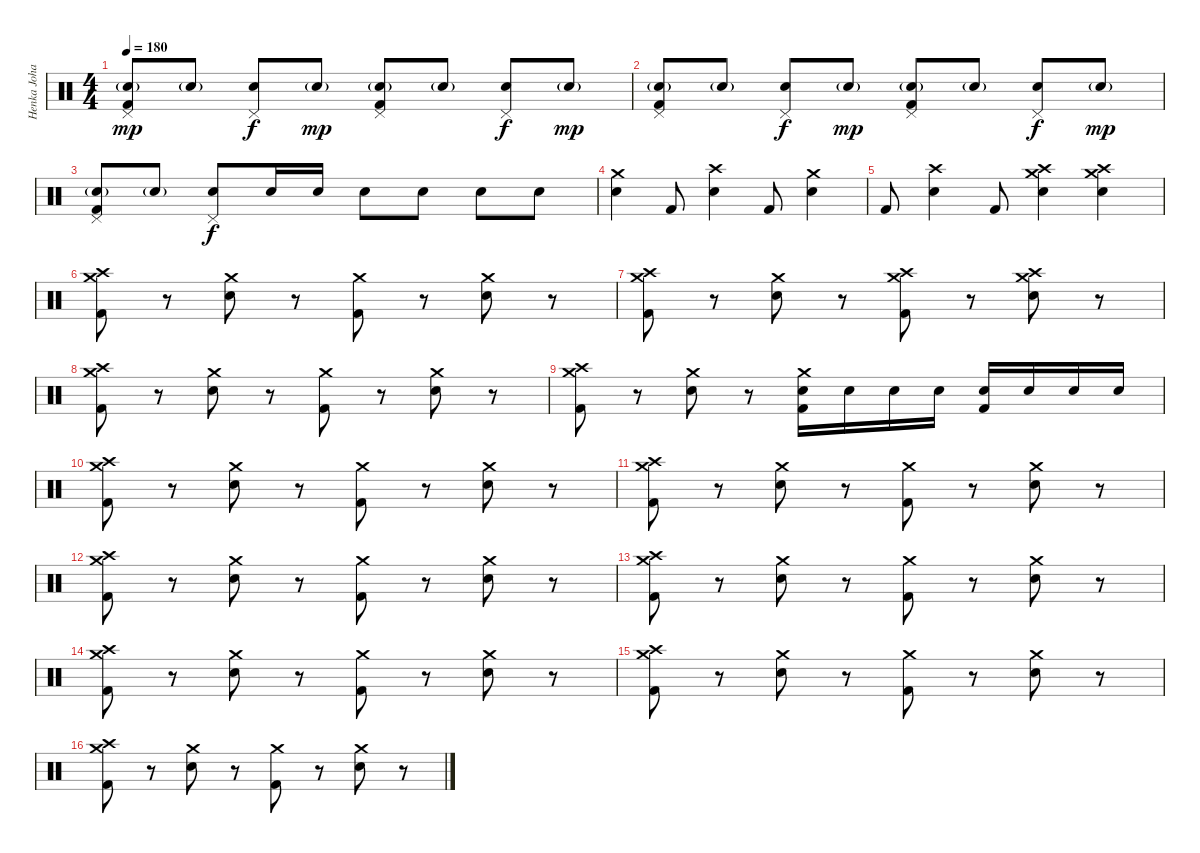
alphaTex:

\track ("Henka Johansson" "Henka Joha") {instrument percussion}
\staff {score}
\articulation defaults
\ts (4 4)
\tempo 180
\clef neutral
\ks c
("Pedal Hi-Hat (hit)" "Snare (hit) 2"{g} "Kick (hit) 2").8{dy mp} "Snare (hit) 2"{g}.8 ("Pedal Hi-Hat (hit)" "Snare (hit) 2").8{dy f} "Snare (hit) 2"{g}.8{dy mp} ("Pedal Hi-Hat (hit)" "Snare (hit) 2"{g} "Kick (hit) 2").8 "Snare (hit) 2"{g}.8 ("Pedal Hi-Hat (hit)" "Snare (hit) 2").8{dy f} "Snare (hit) 2"{g}.8{dy mp} |
("Pedal Hi-Hat (hit)" "Snare (hit) 2"{g} "Kick (hit) 2").8 "Snare (hit) 2"{g}.8 ("Pedal Hi-Hat (hit)" "Snare (hit) 2").8{dy f} "Snare (hit) 2"{g}.8{dy mp} ("Pedal Hi-Hat (hit)" "Snare (hit) 2"{g} "Kick (hit) 2").8 "Snare (hit) 2"{g}.8 ("Pedal Hi-Hat (hit)" "Snare (hit) 2").8{dy f} "Snare (hit) 2"{g}.8{dy mp} |
("Pedal Hi-Hat (hit)" "Snare (hit) 2"{g} "Kick (hit) 2").8 "Snare (hit) 2"{g}.8 ("Pedal Hi-Hat (hit)" "Snare (hit) 2").8{dy f} "Snare (hit) 2".16 "Snare (hit) 2".16 "Snare (hit) 2".8 "Snare (hit) 2".8 "Snare (hit) 2".8 "Snare (hit) 2".8 |
("Crash medium (hit)" "Snare (hit) 2").4 "Kick (hit) 2".8 ("Crash high (hit)" "Snare (hit) 2").4 "Kick (hit) 2".8 ("Crash medium (hit)" "Snare (hit) 2").4 |
"Kick (hit) 2".8 ("Crash high (hit)" "Snare (hit) 2").4 "Kick (hit) 2".8 ("Crash medium (hit)" "Crash high (hit)" "Snare (hit) 2").4 ("Crash medium (hit)" "Crash high (hit)" "Snare (hit) 2").4 |
("Crash medium (hit)" "Crash high (hit)" "Kick (hit) 2").8 r.8 ("Crash medium (hit)" "Snare (hit) 2").8 r.8 ("Crash medium (hit)" "Kick (hit) 2").8 r.8 ("Crash medium (hit)" "Snare (hit) 2").8 r.8 |
("Crash medium (hit)" "Crash high (hit)" "Kick (hit) 2").8 r.8 ("Crash medium (hit)" "Snare (hit) 2").8 r.8 ("Crash medium (hit)" "Crash high (hit)" "Kick (hit) 2").8 r.8 ("Crash medium (hit)" "Crash high (hit)" "Snare (hit) 2").8 r.8 |
("Crash medium (hit)" "Crash high (hit)" "Kick (hit) 2").8 r.8 ("Crash medium (hit)" "Snare (hit) 2").8 r.8 ("Crash medium (hit)" "Kick (hit) 2").8 r.8 ("Crash medium (hit)" "Snare (hit) 2").8 r.8 |
("Crash medium (hit)" "Crash high (hit)" "Kick (hit) 2").8 r.8 ("Crash medium (hit)" "Snare (hit) 2").8 r.8 ("Crash medium (hit)" "Snare (hit) 2" "Kick (hit) 2").16 "Snare (hit) 2".16 "Snare (hit) 2".16 "Snare (hit) 2".16 ("Snare (hit) 2" "Kick (hit) 2").16 "Snare (hit) 2".16 "Snare (hit) 2".16 "Snare (hit) 2".16 |
("Crash medium (hit)" "Crash high (hit)" "Kick (hit) 2").8 r.8 ("Crash medium (hit)" "Snare (hit) 2").8 r.8 ("Crash medium (hit)" "Kick (hit) 2").8 r.8 ("Crash medium (hit)" "Snare (hit) 2").8 r.8 |
("Crash medium (hit)" "Crash high (hit)" "Kick (hit) 2").8 r.8 ("Crash medium (hit)" "Snare (hit) 2").8 r.8 ("Crash medium (hit)" "Kick (hit) 2").8 r.8 ("Crash medium (hit)" "Snare (hit) 2").8 r.8 |
("Crash medium (hit)" "Crash high (hit)" "Kick (hit) 2").8 r.8 ("Crash medium (hit)" "Snare (hit) 2").8 r.8 ("Crash medium (hit)" "Kick (hit) 2").8 r.8 ("Crash medium (hit)" "Snare (hit) 2").8 r.8 |
("Crash medium (hit)" "Crash high (hit)" "Kick (hit) 2").8 r.8 ("Crash medium (hit)" "Snare (hit) 2").8 r.8 ("Crash medium (hit)" "Kick (hit) 2").8 r.8 ("Crash medium (hit)" "Snare (hit) 2").8 r.8 |
("Crash medium (hit)" "Crash high (hit)" "Kick (hit) 2").8 r.8 ("Crash medium (hit)" "Snare (hit) 2").8 r.8 ("Crash medium (hit)" "Kick (hit) 2").8 r.8 ("Crash medium (hit)" "Snare (hit) 2").8 r.8 |
("Crash medium (hit)" "Crash high (hit)" "Kick (hit) 2").8 r.8 ("Crash medium (hit)" "Snare (hit) 2").8 r.8 ("Crash medium (hit)" "Kick (hit) 2").8 r.8 ("Crash medium (hit)" "Snare (hit) 2").8 r.8 |
("Crash medium (hit)" "Crash high (hit)" "Kick (hit) 2").8 r.8 ("Crash medium (hit)" "Snare (hit) 2").8 r.8 ("Crash medium (hit)" "Kick (hit) 2").8 r.8 ("Crash medium (hit)" "Snare (hit) 2").8 r.8
